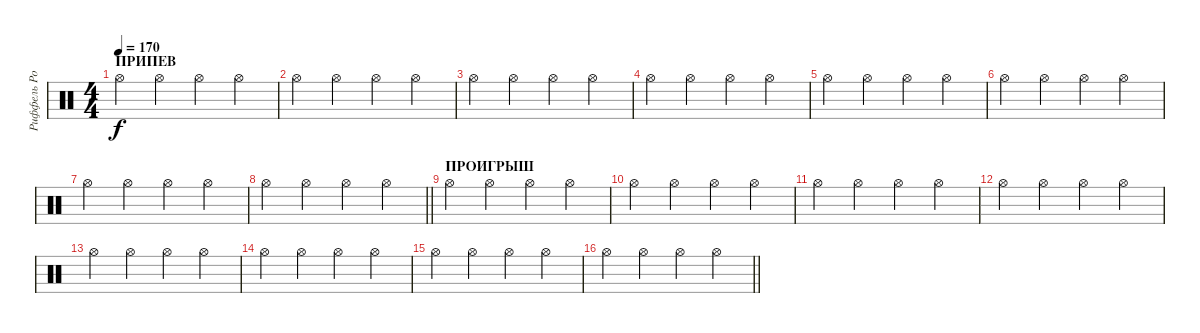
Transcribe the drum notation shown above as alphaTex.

\track ("Риффель Роман(хэты)" "Риффель Ро") {instrument percussion}
\staff {score}
\articulation defaults
\ts (4 4)
\section ("" "ПРИПЕВ")
\tempo 170
\clef neutral
\ks c "Hi-Hat (open)".4{dy f} "Hi-Hat (open)".4 "Hi-Hat (open)".4 "Hi-Hat (open)".4
|
"Hi-Hat (open)".4 "Hi-Hat (open)".4 "Hi-Hat (open)".4 "Hi-Hat (open)".4 |
"Hi-Hat (open)".4 "Hi-Hat (open)".4 "Hi-Hat (open)".4 "Hi-Hat (open)".4 |
"Hi-Hat (open)".4 "Hi-Hat (open)".4 "Hi-Hat (open)".4 "Hi-Hat (open)".4 |
"Hi-Hat (open)".4 "Hi-Hat (open)".4 "Hi-Hat (open)".4 "Hi-Hat (open)".4 |
"Hi-Hat (open)".4 "Hi-Hat (open)".4 "Hi-Hat (open)".4 "Hi-Hat (open)".4 |
"Hi-Hat (open)".4 "Hi-Hat (open)".4 "Hi-Hat (open)".4 "Hi-Hat (open)".4 |
\barLineRight lightlight "Hi-Hat (open)".4 "Hi-Hat (open)".4 "Hi-Hat (open)".4 "Hi-Hat (open)".4
|
\section ("" "ПРОИГРЫШ")
"Hi-Hat (open)".4 "Hi-Hat (open)".4 "Hi-Hat (open)".4 "Hi-Hat (open)".4 |
"Hi-Hat (open)".4 "Hi-Hat (open)".4 "Hi-Hat (open)".4 "Hi-Hat (open)".4 |
"Hi-Hat (open)".4 "Hi-Hat (open)".4 "Hi-Hat (open)".4 "Hi-Hat (open)".4 |
"Hi-Hat (open)".4 "Hi-Hat (open)".4 "Hi-Hat (open)".4 "Hi-Hat (open)".4 |
"Hi-Hat (open)".4 "Hi-Hat (open)".4 "Hi-Hat (open)".4 "Hi-Hat (open)".4 |
"Hi-Hat (open)".4 "Hi-Hat (open)".4 "Hi-Hat (open)".4 "Hi-Hat (open)".4 |
"Hi-Hat (open)".4 "Hi-Hat (open)".4 "Hi-Hat (open)".4 "Hi-Hat (open)".4 |
\barLineRight lightlight "Hi-Hat (open)".4 "Hi-Hat (open)".4 "Hi-Hat (open)".4 "Hi-Hat (open)".4
